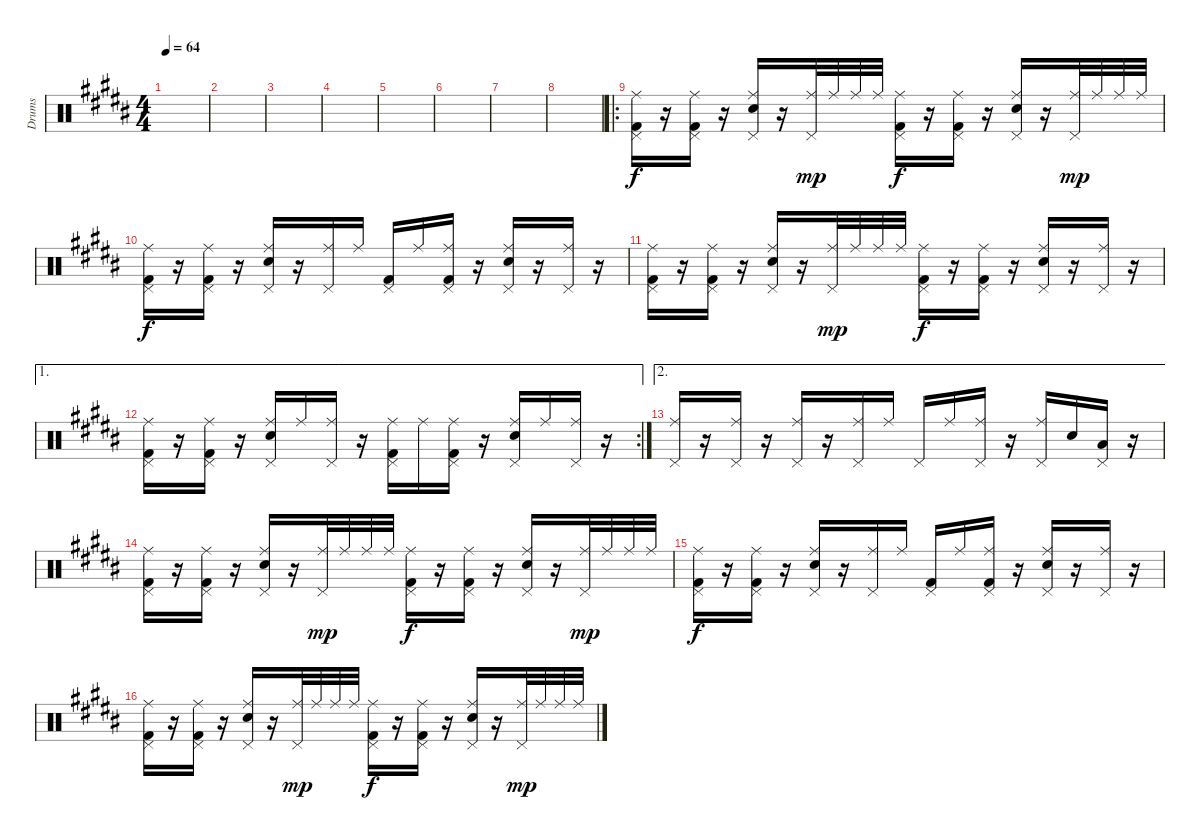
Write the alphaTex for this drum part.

\track ("Drums" "Drums") {instrument percussion}
\staff {score}
\articulation defaults
\ts (4 4)
\tempo 64
\clef neutral
\ks b
|
|
|
|
|
|
|
|
\ro
("Ride (middle)" "Pedal Hi-Hat (hit)" "Kick (hit) 2").16{volume 6} r.16 ("Ride (middle)" "Pedal Hi-Hat (hit)" "Kick (hit) 2").16 r.16 ("Ride (middle)" "Pedal Hi-Hat (hit)" "Snare (hit) 2").16 r.16 ("Ride (middle)" "Pedal Hi-Hat (hit)").32{dy mp} "Ride (middle)".32 "Ride (middle)".32 "Ride (middle)".32 ("Ride (middle)" "Pedal Hi-Hat (hit)" "Kick (hit) 2").16{dy f} r.16 ("Ride (middle)" "Pedal Hi-Hat (hit)" "Kick (hit) 2").16 r.16 ("Ride (middle)" "Pedal Hi-Hat (hit)" "Snare (hit) 2").16 r.16 ("Ride (middle)" "Pedal Hi-Hat (hit)").32{dy mp} "Ride (middle)".32 "Ride (middle)".32 "Ride (middle)".32 |
("Ride (middle)" "Pedal Hi-Hat (hit)" "Kick (hit) 2").16{dy f} r.16 ("Ride (middle)" "Pedal Hi-Hat (hit)" "Kick (hit) 2").16 r.16 ("Ride (middle)" "Pedal Hi-Hat (hit)" "Snare (hit) 2").16 r.16 ("Ride (middle)" "Pedal Hi-Hat (hit)").16 "Ride (middle)".16 ("Pedal Hi-Hat (hit)" "Kick (hit) 2").16 "Ride (middle)".16 ("Ride (middle)" "Pedal Hi-Hat (hit)" "Kick (hit) 2").16 r.16 ("Ride (middle)" "Pedal Hi-Hat (hit)" "Snare (hit) 2").16 r.16 ("Ride (middle)" "Pedal Hi-Hat (hit)").16 r.16 |
("Ride (middle)" "Pedal Hi-Hat (hit)" "Kick (hit) 2").16 r.16 ("Ride (middle)" "Pedal Hi-Hat (hit)" "Kick (hit) 2").16 r.16 ("Ride (middle)" "Pedal Hi-Hat (hit)" "Snare (hit) 2").16 r.16 ("Ride (middle)" "Pedal Hi-Hat (hit)").32{dy mp} "Ride (middle)".32 "Ride (middle)".32 "Ride (middle)".32 ("Ride (middle)" "Pedal Hi-Hat (hit)" "Kick (hit) 2").16{dy f} r.16 ("Ride (middle)" "Pedal Hi-Hat (hit)" "Kick (hit) 2").16 r.16 ("Ride (middle)" "Pedal Hi-Hat (hit)" "Snare (hit) 2").16 r.16 ("Ride (middle)" "Pedal Hi-Hat (hit)").16 r.16 |
\ae 1
\rc 2
("Ride (middle)" "Pedal Hi-Hat (hit)" "Kick (hit) 2").16 r.16 ("Ride (middle)" "Pedal Hi-Hat (hit)" "Kick (hit) 2").16 r.16 ("Ride (middle)" "Pedal Hi-Hat (hit)" "Snare (hit) 2").16 "Ride (middle)".16 ("Ride (middle)" "Pedal Hi-Hat (hit)").16 r.16 ("Ride (middle)" "Pedal Hi-Hat (hit)" "Kick (hit) 2").16 "Ride (middle)".16 ("Ride (middle)" "Pedal Hi-Hat (hit)" "Kick (hit) 2").16 r.16 ("Ride (middle)" "Pedal Hi-Hat (hit)" "Snare (hit) 2").16 "Ride (middle)".16 ("Ride (middle)" "Pedal Hi-Hat (hit)").16 r.16 |
\ae 2
("Ride (middle)" "Pedal Hi-Hat (hit)").16 r.16 ("Ride (middle)" "Pedal Hi-Hat (hit)").16 r.16 ("Ride (middle)" "Pedal Hi-Hat (hit)").16 r.16 ("Ride (middle)" "Pedal Hi-Hat (hit)").16 "Ride (middle)".16 "Pedal Hi-Hat (hit)".16 "Ride (middle)".16 ("Ride (middle)" "Pedal Hi-Hat (hit)").16 r.16 ("Ride (middle)" "Pedal Hi-Hat (hit)").16 "Snare (hit) 2".16 ("Pedal Hi-Hat (hit)" "Low Tom (hit)").16 r.16 |
("Ride (middle)" "Pedal Hi-Hat (hit)" "Kick (hit) 2").16 r.16 ("Ride (middle)" "Pedal Hi-Hat (hit)" "Kick (hit) 2").16 r.16 ("Ride (middle)" "Pedal Hi-Hat (hit)" "Snare (hit) 2").16 r.16 ("Ride (middle)" "Pedal Hi-Hat (hit)").32{dy mp} "Ride (middle)".32 "Ride (middle)".32 "Ride (middle)".32 ("Ride (middle)" "Pedal Hi-Hat (hit)" "Kick (hit) 2").16{dy f} r.16 ("Ride (middle)" "Pedal Hi-Hat (hit)" "Kick (hit) 2").16 r.16 ("Ride (middle)" "Pedal Hi-Hat (hit)" "Snare (hit) 2").16 r.16 ("Ride (middle)" "Pedal Hi-Hat (hit)").32{dy mp} "Ride (middle)".32 "Ride (middle)".32 "Ride (middle)".32 |
("Ride (middle)" "Pedal Hi-Hat (hit)" "Kick (hit) 2").16{dy f} r.16 ("Ride (middle)" "Pedal Hi-Hat (hit)" "Kick (hit) 2").16 r.16 ("Ride (middle)" "Pedal Hi-Hat (hit)" "Snare (hit) 2").16 r.16 ("Ride (middle)" "Pedal Hi-Hat (hit)").16 "Ride (middle)".16 ("Pedal Hi-Hat (hit)" "Kick (hit) 2").16 "Ride (middle)".16 ("Ride (middle)" "Pedal Hi-Hat (hit)" "Kick (hit) 2").16 r.16 ("Ride (middle)" "Pedal Hi-Hat (hit)" "Snare (hit) 2").16 r.16 ("Ride (middle)" "Pedal Hi-Hat (hit)").16 r.16 |
("Ride (middle)" "Pedal Hi-Hat (hit)" "Kick (hit) 2").16 r.16 ("Ride (middle)" "Pedal Hi-Hat (hit)" "Kick (hit) 2").16 r.16 ("Ride (middle)" "Pedal Hi-Hat (hit)" "Snare (hit) 2").16 r.16 ("Ride (middle)" "Pedal Hi-Hat (hit)").32{dy mp} "Ride (middle)".32 "Ride (middle)".32 "Ride (middle)".32 ("Ride (middle)" "Pedal Hi-Hat (hit)" "Kick (hit) 2").16{dy f} r.16 ("Ride (middle)" "Pedal Hi-Hat (hit)" "Kick (hit) 2").16 r.16 ("Ride (middle)" "Pedal Hi-Hat (hit)" "Snare (hit) 2").16 r.16 ("Ride (middle)" "Pedal Hi-Hat (hit)").32{dy mp} "Ride (middle)".32 "Ride (middle)".32 "Ride (middle)".32
